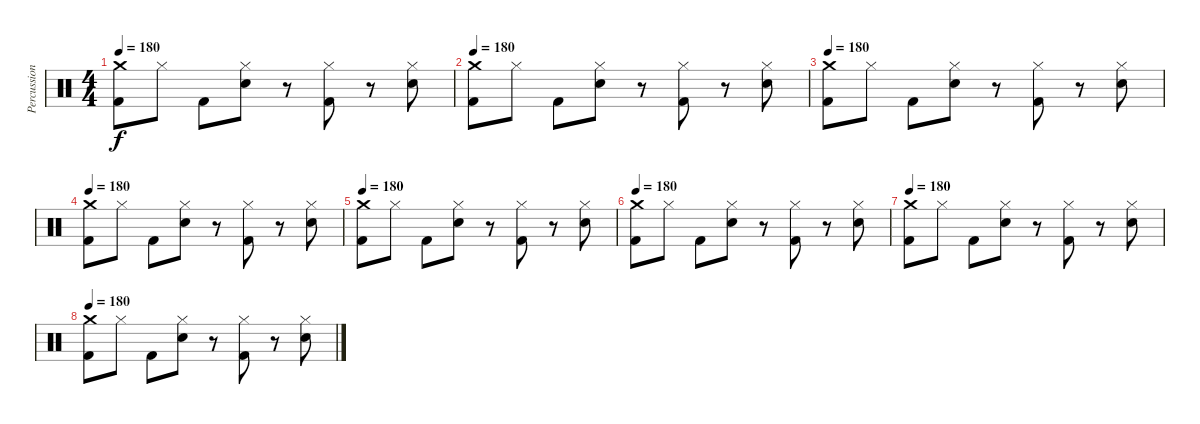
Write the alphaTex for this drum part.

\track ("Percussion" "Percussion") {instrument percussion}
\staff {score}
\articulation defaults
\ts (4 4)
\tempo 180
\clef neutral
\ks c
("Crash medium (hit)" "Kick (hit) 2").8{dy f} "Hi-Hat (closed)".8 "Kick (hit) 2".8 ("Hi-Hat (closed)" "Snare (hit) 2").8 r.8 ("Hi-Hat (closed)" "Kick (hit) 2").8 r.8 ("Hi-Hat (closed)" "Snare (hit) 2").8 |
\tempo 180
("Crash medium (hit)" "Kick (hit) 2").8 "Hi-Hat (closed)".8 "Kick (hit) 2".8 ("Hi-Hat (closed)" "Snare (hit) 2").8 r.8 ("Hi-Hat (closed)" "Kick (hit) 2").8 r.8 ("Hi-Hat (closed)" "Snare (hit) 2").8 |
\tempo 180
("Crash medium (hit)" "Kick (hit) 2").8 "Hi-Hat (closed)".8 "Kick (hit) 2".8 ("Hi-Hat (closed)" "Snare (hit) 2").8 r.8 ("Hi-Hat (closed)" "Kick (hit) 2").8 r.8 ("Hi-Hat (closed)" "Snare (hit) 2").8 |
\tempo 180
("Crash medium (hit)" "Kick (hit) 2").8 "Hi-Hat (closed)".8 "Kick (hit) 2".8 ("Hi-Hat (closed)" "Snare (hit) 2").8 r.8 ("Hi-Hat (closed)" "Kick (hit) 2").8 r.8 ("Hi-Hat (closed)" "Snare (hit) 2").8 |
\tempo 180
("Crash medium (hit)" "Kick (hit) 2").8 "Hi-Hat (closed)".8 "Kick (hit) 2".8 ("Hi-Hat (closed)" "Snare (hit) 2").8 r.8 ("Hi-Hat (closed)" "Kick (hit) 2").8 r.8 ("Hi-Hat (closed)" "Snare (hit) 2").8 |
\tempo 180
("Crash medium (hit)" "Kick (hit) 2").8 "Hi-Hat (closed)".8 "Kick (hit) 2".8 ("Hi-Hat (closed)" "Snare (hit) 2").8 r.8 ("Hi-Hat (closed)" "Kick (hit) 2").8 r.8 ("Hi-Hat (closed)" "Snare (hit) 2").8 |
\tempo 180
("Crash medium (hit)" "Kick (hit) 2").8 "Hi-Hat (closed)".8 "Kick (hit) 2".8 ("Hi-Hat (closed)" "Snare (hit) 2").8 r.8 ("Hi-Hat (closed)" "Kick (hit) 2").8 r.8 ("Hi-Hat (closed)" "Snare (hit) 2").8 |
\tempo 180
("Crash medium (hit)" "Kick (hit) 2").8 "Hi-Hat (closed)".8 "Kick (hit) 2".8 ("Hi-Hat (closed)" "Snare (hit) 2").8 r.8 ("Hi-Hat (closed)" "Kick (hit) 2").8 r.8 ("Hi-Hat (closed)" "Snare (hit) 2").8
